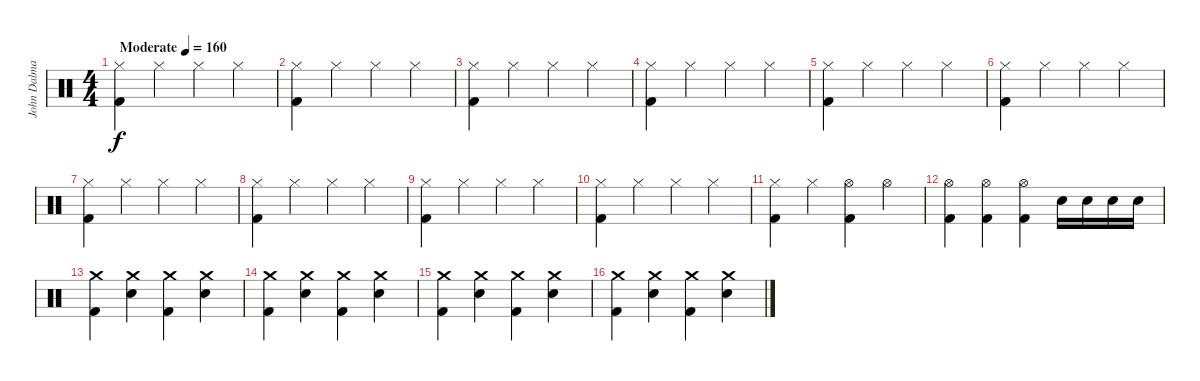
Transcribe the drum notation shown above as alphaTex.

\track ("John Dalmayian - Drums" "John Dalma") {instrument percussion}
\staff {score}
\articulation defaults
\ts (4 4)
\tempo (160 "Moderate")
\clef neutral
\ks c
("Hi-Hat (closed)" "Kick (hit) 2").4{dy f} "Hi-Hat (closed)".4 "Hi-Hat (closed)".4 "Hi-Hat (closed)".4 |
("Hi-Hat (closed)" "Kick (hit) 2").4 "Hi-Hat (closed)".4 "Hi-Hat (closed)".4 "Hi-Hat (closed)".4 |
("Hi-Hat (closed)" "Kick (hit) 2").4 "Hi-Hat (closed)".4 "Hi-Hat (closed)".4 "Hi-Hat (closed)".4 |
("Hi-Hat (closed)" "Kick (hit) 2").4 "Hi-Hat (closed)".4 "Hi-Hat (closed)".4 "Hi-Hat (closed)".4 |
("Hi-Hat (closed)" "Kick (hit) 2").4 "Hi-Hat (closed)".4 "Hi-Hat (closed)".4 "Hi-Hat (closed)".4 |
("Hi-Hat (closed)" "Kick (hit) 2").4 "Hi-Hat (closed)".4 "Hi-Hat (closed)".4 "Hi-Hat (closed)".4 |
("Hi-Hat (closed)" "Kick (hit) 2").4 "Hi-Hat (closed)".4 "Hi-Hat (closed)".4 "Hi-Hat (closed)".4 |
("Hi-Hat (closed)" "Kick (hit) 2").4 "Hi-Hat (closed)".4 "Hi-Hat (closed)".4 "Hi-Hat (closed)".4 |
("Hi-Hat (closed)" "Kick (hit) 2").4 "Hi-Hat (closed)".4 "Hi-Hat (closed)".4 "Hi-Hat (closed)".4 |
("Hi-Hat (closed)" "Kick (hit) 2").4 "Hi-Hat (closed)".4 "Hi-Hat (closed)".4 "Hi-Hat (closed)".4 |
("Hi-Hat (closed)" "Kick (hit) 2").4 "Hi-Hat (closed)".4 ("Hi-Hat (open)" "Kick (hit) 2").4 "Hi-Hat (open)".4 |
("Hi-Hat (open)" "Kick (hit) 2").4 ("Hi-Hat (open)" "Kick (hit) 2").4 ("Hi-Hat (open)" "Kick (hit) 2").4 "Snare (hit) 2".16 "Snare (hit) 2".16 "Snare (hit) 2".16 "Snare (hit) 2".16 |
("Crash medium (hit)" "Kick (hit) 2").4 ("Crash medium (hit)" "Snare (hit) 2").4 ("Crash medium (hit)" "Kick (hit) 2").4 ("Crash medium (hit)" "Snare (hit) 2").4 |
("Crash medium (hit)" "Kick (hit) 2").4 ("Crash medium (hit)" "Snare (hit) 2").4 ("Crash medium (hit)" "Kick (hit) 2").4 ("Crash medium (hit)" "Snare (hit) 2").4 |
("Crash medium (hit)" "Kick (hit) 2").4 ("Crash medium (hit)" "Snare (hit) 2").4 ("Crash medium (hit)" "Kick (hit) 2").4 ("Crash medium (hit)" "Snare (hit) 2").4 |
("Crash medium (hit)" "Kick (hit) 2").4 ("Crash medium (hit)" "Snare (hit) 2").4 ("Crash medium (hit)" "Kick (hit) 2").4 ("Crash medium (hit)" "Snare (hit) 2").4
